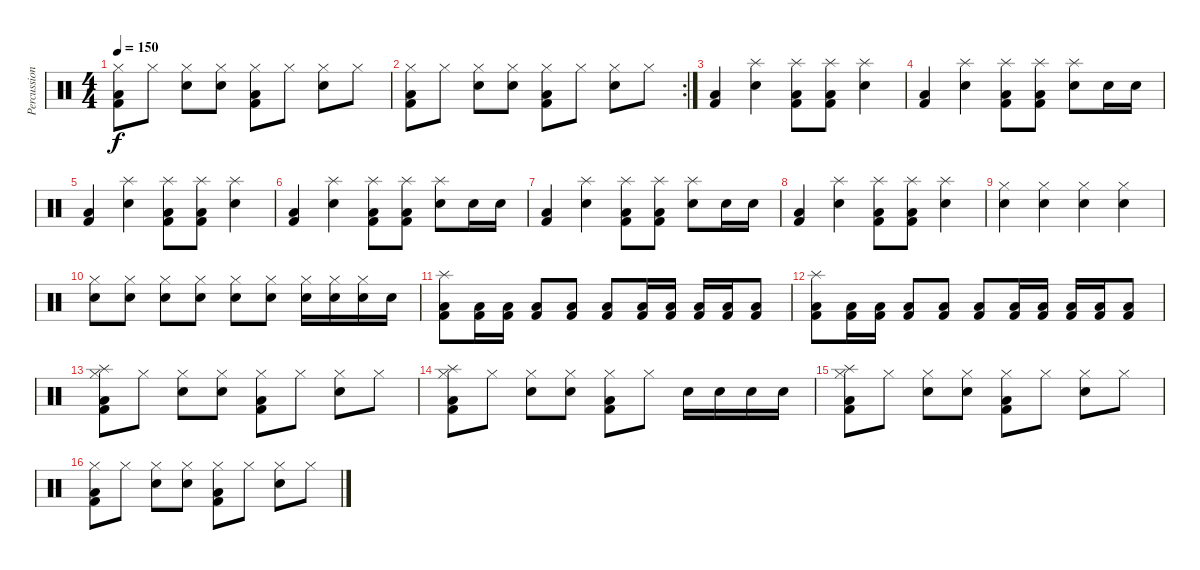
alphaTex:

\track ("Percussions" "Percussion") {instrument percussion}
\staff {score}
\articulation defaults
\ts (4 4)
\tempo 150
\clef neutral
\ks c
("Low Floor Tom (hit)" "Kick (hit) 2" "Hi-Hat (closed)").8{dy f} "Hi-Hat (closed)".8 ("Electric Snare (hit)" "Hi-Hat (closed)").8 ("Electric Snare (hit)" "Hi-Hat (closed)").8 ("Low Floor Tom (hit)" "Kick (hit) 2" "Hi-Hat (closed)").8 "Hi-Hat (closed)".8 ("Electric Snare (hit)" "Hi-Hat (closed)").8 "Hi-Hat (closed)".8 |
\rc 2
("Low Floor Tom (hit)" "Kick (hit) 2" "Hi-Hat (closed)").8 "Hi-Hat (closed)".8 ("Electric Snare (hit)" "Hi-Hat (closed)").8 ("Electric Snare (hit)" "Hi-Hat (closed)").8 ("Low Floor Tom (hit)" "Kick (hit) 2" "Hi-Hat (closed)").8 "Hi-Hat (closed)".8 ("Electric Snare (hit)" "Hi-Hat (closed)").8 "Hi-Hat (closed)".8 |
("Low Floor Tom (hit)" "Kick (hit) 2").4 ("Splash (hit)" "Electric Snare (hit)").4 ("Splash (hit)" "Low Floor Tom (hit)" "Kick (hit) 2").8 ("Splash (hit)" "Low Floor Tom (hit)" "Kick (hit) 2").8 ("Splash (hit)" "Electric Snare (hit)").4 |
("Low Floor Tom (hit)" "Kick (hit) 2").4 ("Splash (hit)" "Electric Snare (hit)").4 ("Splash (hit)" "Low Floor Tom (hit)" "Kick (hit) 2").8 ("Splash (hit)" "Low Floor Tom (hit)" "Kick (hit) 2").8 ("Splash (hit)" "Electric Snare (hit)").8 "Electric Snare (hit)".16 "Snare (hit) 2".16 |
("Low Floor Tom (hit)" "Kick (hit) 2").4 ("Splash (hit)" "Electric Snare (hit)").4 ("Splash (hit)" "Low Floor Tom (hit)" "Kick (hit) 2").8 ("Splash (hit)" "Low Floor Tom (hit)" "Kick (hit) 2").8 ("Splash (hit)" "Electric Snare (hit)").4 |
("Low Floor Tom (hit)" "Kick (hit) 2").4 ("Splash (hit)" "Electric Snare (hit)").4 ("Splash (hit)" "Low Floor Tom (hit)" "Kick (hit) 2").8 ("Splash (hit)" "Low Floor Tom (hit)" "Kick (hit) 2").8 ("Splash (hit)" "Electric Snare (hit)").8 "Electric Snare (hit)".16 "Snare (hit) 2".16 |
("Low Floor Tom (hit)" "Kick (hit) 2").4 ("Splash (hit)" "Electric Snare (hit)").4 ("Splash (hit)" "Low Floor Tom (hit)" "Kick (hit) 2").8 ("Splash (hit)" "Low Floor Tom (hit)" "Kick (hit) 2").8 ("Splash (hit)" "Electric Snare (hit)").8 "Electric Snare (hit)".16 "Snare (hit) 2".16 |
("Low Floor Tom (hit)" "Kick (hit) 2").4 ("Splash (hit)" "Electric Snare (hit)").4 ("Splash (hit)" "Low Floor Tom (hit)" "Kick (hit) 2").8 ("Splash (hit)" "Low Floor Tom (hit)" "Kick (hit) 2").8 ("Splash (hit)" "Electric Snare (hit)").4 |
("Electric Snare (hit)" "Hi-Hat (closed)").4 ("Electric Snare (hit)" "Hi-Hat (closed)").4 ("Electric Snare (hit)" "Hi-Hat (closed)").4 ("Electric Snare (hit)" "Hi-Hat (closed)").4 |
("Electric Snare (hit)" "Hi-Hat (closed)").8 ("Electric Snare (hit)" "Hi-Hat (closed)").8 ("Electric Snare (hit)" "Hi-Hat (closed)").8 ("Electric Snare (hit)" "Hi-Hat (closed)").8 ("Electric Snare (hit)" "Hi-Hat (closed)").8 ("Electric Snare (hit)" "Hi-Hat (closed)").8 ("Electric Snare (hit)" "Hi-Hat (closed)").16 ("Electric Snare (hit)" "Hi-Hat (closed)").16 ("Electric Snare (hit)" "Hi-Hat (closed)").16 "Electric Snare (hit)".16 |
("Splash (hit)" "Kick (hit) 2" "Low Floor Tom (hit)").8 ("Kick (hit) 2" "Low Floor Tom (hit)").16 ("Kick (hit) 2" "Low Floor Tom (hit)").16 ("Kick (hit) 2" "Low Floor Tom (hit)").8 ("Kick (hit) 2" "Low Floor Tom (hit)").8 ("Kick (hit) 2" "Low Floor Tom (hit)").8 ("Kick (hit) 2" "Low Floor Tom (hit)").16 ("Kick (hit) 2" "Low Floor Tom (hit)").16 ("Kick (hit) 2" "Low Floor Tom (hit)").16 ("Kick (hit) 2" "Low Floor Tom (hit)").16 ("Kick (hit) 2" "Low Floor Tom (hit)").8 |
("Splash (hit)" "Kick (hit) 2" "Low Floor Tom (hit)").8 ("Kick (hit) 2" "Low Floor Tom (hit)").16 ("Kick (hit) 2" "Low Floor Tom (hit)").16 ("Kick (hit) 2" "Low Floor Tom (hit)").8 ("Kick (hit) 2" "Low Floor Tom (hit)").8 ("Kick (hit) 2" "Low Floor Tom (hit)").8 ("Kick (hit) 2" "Low Floor Tom (hit)").16 ("Kick (hit) 2" "Low Floor Tom (hit)").16 ("Kick (hit) 2" "Low Floor Tom (hit)").16 ("Kick (hit) 2" "Low Floor Tom (hit)").16 ("Kick (hit) 2" "Low Floor Tom (hit)").8 |
("Splash (hit)" "Low Floor Tom (hit)" "Kick (hit) 2" "Hi-Hat (closed)").8 "Hi-Hat (closed)".8 ("Electric Snare (hit)" "Hi-Hat (closed)").8 ("Electric Snare (hit)" "Hi-Hat (closed)").8 ("Low Floor Tom (hit)" "Kick (hit) 2" "Hi-Hat (closed)").8 "Hi-Hat (closed)".8 ("Electric Snare (hit)" "Hi-Hat (closed)").8 "Hi-Hat (closed)".8 |
("Splash (hit)" "Low Floor Tom (hit)" "Kick (hit) 2" "Hi-Hat (closed)").8 "Hi-Hat (closed)".8 ("Electric Snare (hit)" "Hi-Hat (closed)").8 ("Electric Snare (hit)" "Hi-Hat (closed)").8 ("Low Floor Tom (hit)" "Kick (hit) 2" "Hi-Hat (closed)").8 "Hi-Hat (closed)".8 "Electric Snare (hit)".16 "Electric Snare (hit)".16 "Electric Snare (hit)".16 "Electric Snare (hit)".16 |
("Splash (hit)" "Low Floor Tom (hit)" "Kick (hit) 2" "Hi-Hat (closed)").8 "Hi-Hat (closed)".8 ("Electric Snare (hit)" "Hi-Hat (closed)").8 ("Electric Snare (hit)" "Hi-Hat (closed)").8 ("Low Floor Tom (hit)" "Kick (hit) 2" "Hi-Hat (closed)").8 "Hi-Hat (closed)".8 ("Electric Snare (hit)" "Hi-Hat (closed)").8 "Hi-Hat (closed)".8 |
("Low Floor Tom (hit)" "Kick (hit) 2" "Hi-Hat (closed)").8 "Hi-Hat (closed)".8 ("Electric Snare (hit)" "Hi-Hat (closed)").8 ("Electric Snare (hit)" "Hi-Hat (closed)").8 ("Low Floor Tom (hit)" "Kick (hit) 2" "Hi-Hat (closed)").8 "Hi-Hat (closed)".8 ("Electric Snare (hit)" "Hi-Hat (closed)").8 "Hi-Hat (closed)".8
